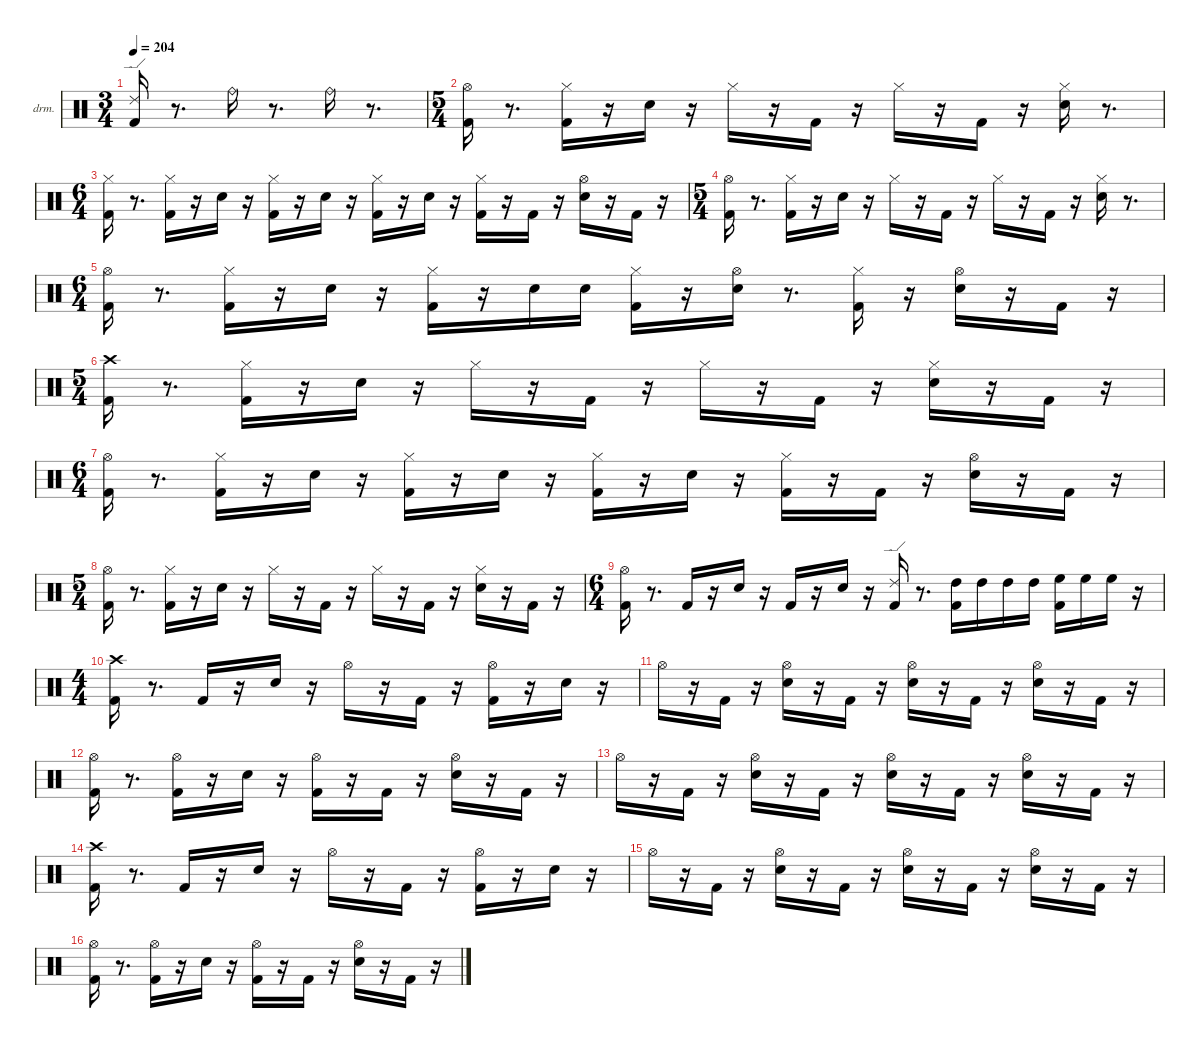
\hideDynamics
\bracketExtendMode nobrackets
\firstSystemTrackNameOrientation horizontal
\otherSystemsTrackNameOrientation horizontal
\track ("drums" "drm.") {instrument percussion}
\staff {score}
\articulation defaults
\ts (3 4)
\tempo 204
\clef neutral
\ks aminor
("Kick (hit) 2" "Ride (edge) 2").16{dy fff beam Up} r.8{d beam Up} "Ride (bell)".16{dy ff beam Down} r.8{d beam Down} "Ride (bell)".16{dy fff beam Down} r.8{d beam Down} |
\ts (5 4)
("Kick (hit) 2" "Hi-Hat (open)"{acc #}).16{beam Down} r.8{d beam Down} ("Kick (hit) 2" "Hi-Hat (closed)"{acc #}).16{dy ff beam Down} r.16{beam Down} "Snare (hit) 2".16{beam Down} r.16{beam Down} "Hi-Hat (closed)"{acc #}.16{dy f beam Down} r.16{beam Down} "Kick (hit) 2".16{dy ff beam Up} r.16{beam Up} "Hi-Hat (closed)"{acc #}.16{dy fff beam Down} r.16{beam Down} "Kick (hit) 2".16{dy ff beam Up} r.16{beam Up} ("Snare (hit) 2" "Hi-Hat (closed)"{acc #}).16{dy f beam Down} r.8{d beam Down} |
\ts (6 4)
("Kick (hit) 2" "Hi-Hat (closed)"{acc #}).16{dy ff beam Down} r.8{d beam Down} ("Kick (hit) 2" "Hi-Hat (closed)"{acc #}).16{beam Down} r.16{beam Down} "Snare (hit) 2".16{dy f beam Down} r.16{beam Down} ("Kick (hit) 2" "Hi-Hat (closed)"{acc #}).16{dy ff beam Down} r.16{beam Down} "Snare (hit) 2".16{beam Down} r.16{beam Down} ("Kick (hit) 2" "Hi-Hat (closed)"{acc #}).16{beam Down} r.16{beam Down} "Snare (hit) 2".16{dy mf beam Down} r.16{beam Down} ("Kick (hit) 2" "Hi-Hat (closed)"{acc #}).16{beam Down} r.16{beam Down} "Kick (hit) 2".16{dy ff beam Up} r.16{beam Up} ("Snare (hit) 2" "Hi-Hat (open)"{acc #}).16{dy f beam Down} r.16{beam Down} "Kick (hit) 2".16{dy mf beam Up} r.16{beam Up} |
\ts (5 4)
("Kick (hit) 2" "Hi-Hat (open)"{acc #}).16{dy ff beam Down} r.8{d beam Down} ("Kick (hit) 2" "Hi-Hat (closed)"{acc #}).16{beam Down} r.16{beam Down} "Snare (hit) 2".16{dy f beam Down} r.16{beam Down} "Hi-Hat (closed)"{acc #}.16{beam Down} r.16{beam Down} "Kick (hit) 2".16{dy ff beam Up} r.16{beam Up} "Hi-Hat (closed)"{acc #}.16{dy fff beam Down} r.16{beam Down} "Kick (hit) 2".16{dy ff beam Up} r.16{beam Up} ("Snare (hit) 2" "Hi-Hat (closed)"{acc #}).16{beam Down} r.8{d beam Down} |
\ts (6 4)
("Kick (hit) 2" "Hi-Hat (open)"{acc #}).16{beam Down} r.8{d beam Down} ("Kick (hit) 2" "Hi-Hat (closed)"{acc #}).16{beam Down} r.16{beam Down} "Snare (hit) 2".16{dy mf beam Down} r.16{beam Down} ("Kick (hit) 2" "Hi-Hat (closed)"{acc #}).16{dy ff beam Down} r.16{beam Down} "Snare (hit) 2".16{dy p beam Down} "Snare (hit) 2".16{dy pp beam Down} ("Kick (hit) 2" "Hi-Hat (closed)"{acc #}).16{dy fff beam Down} r.16{beam Down} ("Snare (hit) 2" "Hi-Hat (open)"{acc #}).16{dy ff beam Down} r.8{d beam Down} ("Kick (hit) 2" "Hi-Hat (closed)"{acc #}).16{beam Down} r.16{beam Down} ("Snare (hit) 2" "Hi-Hat (open)"{acc #}).16{beam Down} r.16{beam Down} "Kick (hit) 2".16{dy mf beam Up} r.16{beam Up} |
\ts (5 4)
("Kick (hit) 2" "Crash high (hit)"{acc #}).16{dy fff beam Down} r.8{d beam Down} ("Kick (hit) 2" "Hi-Hat (closed)"{acc #}).16{dy ff beam Down} r.16{beam Down} "Snare (hit) 2".16{beam Down} r.16{beam Down} "Hi-Hat (closed)"{acc #}.16{dy f beam Down} r.16{beam Down} "Kick (hit) 2".16{dy ff beam Up} r.16{beam Up} "Hi-Hat (closed)"{acc #}.16{beam Down} r.16{beam Down} "Kick (hit) 2".16{beam Up} r.16{beam Up} ("Snare (hit) 2" "Hi-Hat (closed)"{acc #}).16{beam Down} r.16{beam Down} "Kick (hit) 2".16{dy mf beam Up} r.16{beam Up} |
\ts (6 4)
("Kick (hit) 2" "Hi-Hat (open)"{acc #}).16{dy ff beam Down} r.8{d beam Down} ("Kick (hit) 2" "Hi-Hat (closed)"{acc #}).16{beam Down} r.16{beam Down} "Snare (hit) 2".16{dy f beam Down} r.16{beam Down} ("Kick (hit) 2" "Hi-Hat (closed)"{acc #}).16{dy ff beam Down} r.16{beam Down} "Snare (hit) 2".16{beam Down} r.16{beam Down} ("Kick (hit) 2" "Hi-Hat (closed)"{acc #}).16{beam Down} r.16{beam Down} "Snare (hit) 2".16{dy mf beam Down} r.16{beam Down} ("Kick (hit) 2" "Hi-Hat (closed)"{acc #}).16{beam Down} r.16{beam Down} "Kick (hit) 2".16{dy ff beam Up} r.16{beam Up} ("Snare (hit) 2" "Hi-Hat (open)"{acc #}).16{beam Down} r.16{beam Down} "Kick (hit) 2".16{dy mp beam Up} r.16{beam Up} |
\ts (5 4)
("Kick (hit) 2" "Hi-Hat (open)"{acc #}).16{dy ff beam Down} r.8{d beam Down} ("Kick (hit) 2" "Hi-Hat (closed)"{acc #}).16{beam Down} r.16{beam Down} "Snare (hit) 2".16{beam Down} r.16{beam Down} "Hi-Hat (closed)"{acc #}.16{dy f beam Down} r.16{beam Down} "Kick (hit) 2".16{dy ff beam Up} r.16{beam Up} "Hi-Hat (closed)"{acc #}.16{dy fff beam Down} r.16{beam Down} "Kick (hit) 2".16{dy ff beam Up} r.16{beam Up} ("Snare (hit) 2" "Hi-Hat (closed)"{acc #}).16{beam Down} r.16{beam Down} "Kick (hit) 2".16{dy mf beam Up} r.16{beam Up} |
\ts (6 4)
("Kick (hit) 2" "Hi-Hat (open)"{acc #}).16{dy ff beam Down} r.8{d beam Down} "Kick (hit) 2".16{beam Up} r.16{beam Up} "Snare (hit) 2".16{dy f beam Down} r.16{beam Down} "Kick (hit) 2".16{dy ff beam Up} r.16{beam Up} "Snare (hit) 2".16{dy mf beam Down} r.16{beam Down} ("Kick (hit) 2" "Ride (edge) 2").16{dy fff beam Up} r.8{d beam Up} ("Kick (hit) 2" "High Tom (hit)").16{dy ff beam Down} "High Tom (hit)".16{dy mp beam Down} "High Tom (hit)".16{dy f beam Down} "High Tom (hit)".16{dy mf beam Down} ("Kick (hit) 2" "High Floor Tom (hit)").16{dy ff beam Down} "High Floor Tom (hit)".16{dy f beam Down} "High Floor Tom (hit)".16{dy fff beam Down} r.16{beam Down} |
\ts (4 4)
("Kick (hit) 2" "Crash high (hit)"{acc #}).16{dy ff beam Down} r.8{d beam Down} "Kick (hit) 2".16{beam Up} r.16{beam Up} "Snare (hit) 2".16{beam Down} r.16{beam Down} "Hi-Hat (open)"{acc #}.16{dy mp beam Down} r.16{beam Down} "Kick (hit) 2".16{dy f beam Up} r.16{beam Up} ("Kick (hit) 2" "Hi-Hat (open)"{acc #}).16{dy fff beam Down} r.16{beam Down} "Snare (hit) 2".16{dy ff beam Down} r.16{beam Down} |
"Hi-Hat (open)"{acc #}.16{dy fff beam Down} r.16{beam Down} "Kick (hit) 2".16{dy ff beam Up} r.16{beam Up} ("Snare (hit) 2" "Hi-Hat (open)"{acc #}).16{beam Down} r.16{beam Down} "Kick (hit) 2".16{beam Up} r.16{beam Up} ("Snare (hit) 2" "Hi-Hat (open)"{acc #}).16{beam Down} r.16{beam Down} "Kick (hit) 2".16{beam Up} r.16{beam Up} ("Snare (hit) 2" "Hi-Hat (open)"{acc #}).16{beam Down} r.16{beam Down} "Kick (hit) 2".16{dy mf beam Up} r.16{beam Up} |
("Kick (hit) 2" "Hi-Hat (open)"{acc #}).16{dy fff beam Down} r.8{d beam Down} ("Kick (hit) 2" "Hi-Hat (open)"{acc #}).16{dy ff beam Down} r.16{beam Down} "Snare (hit) 2".16{beam Down} r.16{beam Down} ("Kick (hit) 2" "Hi-Hat (open)"{acc #}).16{dy mf beam Down} r.16{beam Down} "Kick (hit) 2".16{dy ff beam Up} r.16{beam Up} ("Snare (hit) 2" "Hi-Hat (open)"{acc #}).16{dy mf beam Down} r.16{beam Down} "Kick (hit) 2".16{dy ff beam Up} r.16{beam Up} |
"Hi-Hat (open)"{acc #}.16{dy fff beam Down} r.16{beam Down} "Kick (hit) 2".16{dy ff beam Up} r.16{beam Up} ("Snare (hit) 2" "Hi-Hat (open)"{acc #}).16{beam Down} r.16{beam Down} "Kick (hit) 2".16{beam Up} r.16{beam Up} ("Snare (hit) 2" "Hi-Hat (open)"{acc #}).16{beam Down} r.16{beam Down} "Kick (hit) 2".16{beam Up} r.16{beam Up} ("Snare (hit) 2" "Hi-Hat (open)"{acc #}).16{beam Down} r.16{beam Down} "Kick (hit) 2".16{dy mf beam Up} r.16{beam Up} |
("Kick (hit) 2" "Crash high (hit)"{acc #}).16{dy fff beam Down} r.8{d beam Down} "Kick (hit) 2".16{dy ff beam Up} r.16{beam Up} "Snare (hit) 2".16{beam Down} r.16{beam Down} "Hi-Hat (open)"{acc #}.16{dy f beam Down} r.16{beam Down} "Kick (hit) 2".16{beam Up} r.16{beam Up} ("Kick (hit) 2" "Hi-Hat (open)"{acc #}).16{dy ff beam Down} r.16{beam Down} "Snare (hit) 2".16{beam Down} r.16{beam Down} |
"Hi-Hat (open)"{acc #}.16{dy fff beam Down} r.16{beam Down} "Kick (hit) 2".16{dy ff beam Up} r.16{beam Up} ("Snare (hit) 2" "Hi-Hat (open)"{acc #}).16{beam Down} r.16{beam Down} "Kick (hit) 2".16{beam Up} r.16{beam Up} ("Snare (hit) 2" "Hi-Hat (open)"{acc #}).16{beam Down} r.16{beam Down} "Kick (hit) 2".16{beam Up} r.16{beam Up} ("Snare (hit) 2" "Hi-Hat (open)"{acc #}).16{beam Down} r.16{beam Down} "Kick (hit) 2".16{dy mf beam Up} r.16{beam Up} |
("Kick (hit) 2" "Hi-Hat (open)"{acc #}).16{dy fff beam Down} r.8{d beam Down} ("Kick (hit) 2" "Hi-Hat (open)"{acc #}).16{dy ff beam Down} r.16{beam Down} "Snare (hit) 2".16{beam Down} r.16{beam Down} ("Kick (hit) 2" "Hi-Hat (open)"{acc #}).16{dy f beam Down} r.16{beam Down} "Kick (hit) 2".16{dy ff beam Up} r.16{beam Up} ("Snare (hit) 2" "Hi-Hat (open)"{acc #}).16{dy mf beam Down} r.16{beam Down} "Kick (hit) 2".16{dy ff beam Up} r.16{beam Up}
